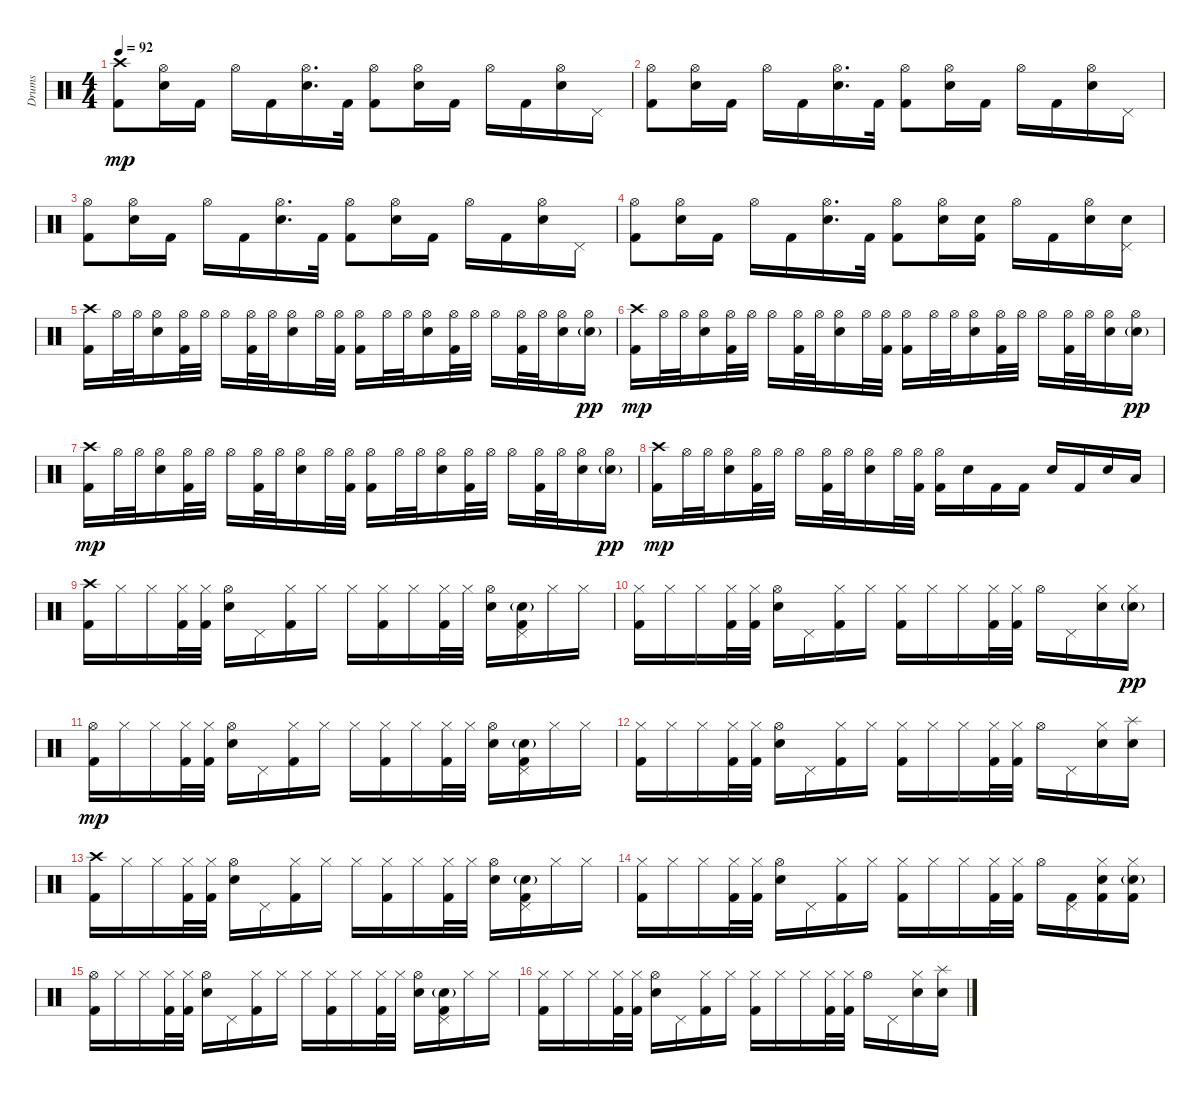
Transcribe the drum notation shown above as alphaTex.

\track ("Drums" "Drums") {instrument percussion}
\staff {score}
\articulation defaults
\ts (4 4)
\tempo 92
\clef neutral
\ks c
("Crash high (hit)" "Kick (hit) 2").8{dy mp} ("Hi-Hat (open)" "Electric Snare (hit)").16 "Kick (hit) 2".16 "Hi-Hat (open)".16 "Kick (hit) 2".16 ("Hi-Hat (open)" "Electric Snare (hit)").16{d} "Kick (hit) 2".32 ("Hi-Hat (open)" "Kick (hit) 2").8 ("Hi-Hat (open)" "Electric Snare (hit)").16 "Kick (hit) 2".16 "Hi-Hat (open)".16 "Kick (hit) 2".16 ("Hi-Hat (open)" "Electric Snare (hit)").16 "Pedal Hi-Hat (hit)".16 |
("Hi-Hat (open)" "Kick (hit) 2").8 ("Hi-Hat (open)" "Electric Snare (hit)").16 "Kick (hit) 2".16 "Hi-Hat (open)".16 "Kick (hit) 2".16 ("Hi-Hat (open)" "Electric Snare (hit)").16{d} "Kick (hit) 2".32 ("Hi-Hat (open)" "Kick (hit) 2").8 ("Hi-Hat (open)" "Electric Snare (hit)").16 "Kick (hit) 2".16 "Hi-Hat (open)".16 "Kick (hit) 2".16 ("Hi-Hat (open)" "Electric Snare (hit)").16 "Pedal Hi-Hat (hit)".16 |
("Hi-Hat (open)" "Kick (hit) 2").8 ("Hi-Hat (open)" "Electric Snare (hit)").16 "Kick (hit) 2".16 "Hi-Hat (open)".16 "Kick (hit) 2".16 ("Hi-Hat (open)" "Electric Snare (hit)").16{d} "Kick (hit) 2".32 ("Hi-Hat (open)" "Kick (hit) 2").8 ("Hi-Hat (open)" "Electric Snare (hit)").16 "Kick (hit) 2".16 "Hi-Hat (open)".16 "Kick (hit) 2".16 ("Hi-Hat (open)" "Electric Snare (hit)").16 "Pedal Hi-Hat (hit)".16 |
("Hi-Hat (open)" "Kick (hit) 2").8 ("Hi-Hat (open)" "Electric Snare (hit)").16 "Kick (hit) 2".16 "Hi-Hat (open)".16 "Kick (hit) 2".16 ("Hi-Hat (open)" "Electric Snare (hit)").16{d} "Kick (hit) 2".32 ("Hi-Hat (open)" "Kick (hit) 2").8 ("Hi-Hat (open)" "Electric Snare (hit)").16 ("Electric Snare (hit)" "Kick (hit) 2").16 "Hi-Hat (open)".16 "Kick (hit) 2".16 ("Hi-Hat (open)" "Electric Snare (hit)").16 ("Pedal Hi-Hat (hit)" "Electric Snare (hit)").16 |
("Crash high (hit)" "Kick (hit) 2").16 "Hi-Hat (open)".32 "Hi-Hat (open)".32 ("Hi-Hat (open)" "Electric Snare (hit)").16 ("Hi-Hat (open)" "Kick (hit) 2").32 "Hi-Hat (open)".32 "Hi-Hat (open)".16 ("Hi-Hat (open)" "Kick (hit) 2").32 "Hi-Hat (open)".32 ("Hi-Hat (open)" "Electric Snare (hit)").16 "Hi-Hat (open)".32 ("Hi-Hat (open)" "Kick (hit) 2").32 ("Hi-Hat (open)" "Kick (hit) 2").16 "Hi-Hat (open)".32 "Hi-Hat (open)".32 ("Hi-Hat (open)" "Electric Snare (hit)").16 ("Hi-Hat (open)" "Kick (hit) 2").32 "Hi-Hat (open)".32 "Hi-Hat (open)".16 ("Hi-Hat (open)" "Kick (hit) 2").32 "Hi-Hat (open)".32 ("Hi-Hat (open)" "Electric Snare (hit)").16 ("Hi-Hat (open)" "Electric Snare (hit)"{g}).16{dy pp} |
("Crash high (hit)" "Kick (hit) 2").16{dy mp} "Hi-Hat (open)".32 "Hi-Hat (open)".32 ("Hi-Hat (open)" "Electric Snare (hit)").16 ("Hi-Hat (open)" "Kick (hit) 2").32 "Hi-Hat (open)".32 "Hi-Hat (open)".16 ("Hi-Hat (open)" "Kick (hit) 2").32 "Hi-Hat (open)".32 ("Hi-Hat (open)" "Electric Snare (hit)").16 "Hi-Hat (open)".32 ("Hi-Hat (open)" "Kick (hit) 2").32 ("Hi-Hat (open)" "Kick (hit) 2").16 "Hi-Hat (open)".32 "Hi-Hat (open)".32 ("Hi-Hat (open)" "Electric Snare (hit)").16 ("Hi-Hat (open)" "Kick (hit) 2").32 "Hi-Hat (open)".32 "Hi-Hat (open)".16 ("Hi-Hat (open)" "Kick (hit) 2").32 "Hi-Hat (open)".32 ("Hi-Hat (open)" "Electric Snare (hit)").16 ("Hi-Hat (open)" "Electric Snare (hit)"{g}).16{dy pp} |
("Crash high (hit)" "Kick (hit) 2").16{dy mp} "Hi-Hat (open)".32 "Hi-Hat (open)".32 ("Hi-Hat (open)" "Electric Snare (hit)").16 ("Hi-Hat (open)" "Kick (hit) 2").32 "Hi-Hat (open)".32 "Hi-Hat (open)".16 ("Hi-Hat (open)" "Kick (hit) 2").32 "Hi-Hat (open)".32 ("Hi-Hat (open)" "Electric Snare (hit)").16 "Hi-Hat (open)".32 ("Hi-Hat (open)" "Kick (hit) 2").32 ("Hi-Hat (open)" "Kick (hit) 2").16 "Hi-Hat (open)".32 "Hi-Hat (open)".32 ("Hi-Hat (open)" "Electric Snare (hit)").16 ("Hi-Hat (open)" "Kick (hit) 2").32 "Hi-Hat (open)".32 "Hi-Hat (open)".16 ("Hi-Hat (open)" "Kick (hit) 2").32 "Hi-Hat (open)".32 ("Hi-Hat (open)" "Electric Snare (hit)").16 ("Hi-Hat (open)" "Electric Snare (hit)"{g}).16{dy pp} |
("Crash high (hit)" "Kick (hit) 2").16{dy mp} "Hi-Hat (open)".32 "Hi-Hat (open)".32 ("Hi-Hat (open)" "Electric Snare (hit)").16 ("Hi-Hat (open)" "Kick (hit) 2").32 "Hi-Hat (open)".32 "Hi-Hat (open)".16 ("Hi-Hat (open)" "Kick (hit) 2").32 "Hi-Hat (open)".32 ("Hi-Hat (open)" "Electric Snare (hit)").16 "Hi-Hat (open)".32 ("Hi-Hat (open)" "Kick (hit) 2").32 ("Hi-Hat (open)" "Kick (hit) 2").16 "Electric Snare (hit)".16 "Kick (hit) 2".16 "Kick (hit) 2".16 "Electric Snare (hit)".16 "Kick (hit) 2".16 "Electric Snare (hit)".16 "Low Floor Tom (hit)".16 |
("Crash high (hit)" "Kick (hit) 2").16 "Hi-Hat (closed)".16 "Hi-Hat (closed)".16 ("Hi-Hat (closed)" "Kick (hit) 2").32 ("Hi-Hat (closed)" "Kick (hit) 2").32 ("Hi-Hat (open)" "Electric Snare (hit)").16 "Pedal Hi-Hat (hit)".16 ("Hi-Hat (closed)" "Kick (hit) 2").16 "Hi-Hat (closed)".16 "Hi-Hat (closed)".16 ("Hi-Hat (closed)" "Kick (hit) 2").16 "Hi-Hat (closed)".16 ("Hi-Hat (closed)" "Kick (hit) 2").32 "Hi-Hat (closed)".32 ("Hi-Hat (open)" "Electric Snare (hit)").16 ("Pedal Hi-Hat (hit)" "Electric Snare (hit)"{g} "Kick (hit) 2").16 "Hi-Hat (closed)".16 "Hi-Hat (closed)".16 |
("Hi-Hat (closed)" "Kick (hit) 2").16 "Hi-Hat (closed)".16 "Hi-Hat (closed)".16 ("Hi-Hat (closed)" "Kick (hit) 2").32 ("Hi-Hat (closed)" "Kick (hit) 2").32 ("Hi-Hat (open)" "Electric Snare (hit)").16 "Pedal Hi-Hat (hit)".16 ("Hi-Hat (closed)" "Kick (hit) 2").16 "Hi-Hat (closed)".16 ("Hi-Hat (closed)" "Kick (hit) 2").16 "Hi-Hat (closed)".16 "Hi-Hat (closed)".16 ("Hi-Hat (closed)" "Kick (hit) 2").32 ("Hi-Hat (closed)" "Kick (hit) 2").32 "Hi-Hat (open)".16 "Pedal Hi-Hat (hit)".16 ("Hi-Hat (closed)" "Electric Snare (hit)").16 ("Hi-Hat (closed)" "Electric Snare (hit)"{g}).16{dy pp} |
("Hi-Hat (open)" "Kick (hit) 2").16{dy mp} "Hi-Hat (closed)".16 "Hi-Hat (closed)".16 ("Hi-Hat (closed)" "Kick (hit) 2").32 ("Hi-Hat (closed)" "Kick (hit) 2").32 ("Hi-Hat (open)" "Electric Snare (hit)").16 "Pedal Hi-Hat (hit)".16 ("Hi-Hat (closed)" "Kick (hit) 2").16 "Hi-Hat (closed)".16 "Hi-Hat (closed)".16 ("Hi-Hat (closed)" "Kick (hit) 2").16 "Hi-Hat (closed)".16 ("Hi-Hat (closed)" "Kick (hit) 2").32 "Hi-Hat (closed)".32 ("Hi-Hat (open)" "Electric Snare (hit)").16 ("Pedal Hi-Hat (hit)" "Electric Snare (hit)"{g} "Kick (hit) 2").16 "Hi-Hat (closed)".16 "Hi-Hat (closed)".16 |
("Hi-Hat (closed)" "Kick (hit) 2").16 "Hi-Hat (closed)".16 "Hi-Hat (closed)".16 ("Hi-Hat (closed)" "Kick (hit) 2").32 ("Hi-Hat (closed)" "Kick (hit) 2").32 ("Hi-Hat (open)" "Electric Snare (hit)").16 "Pedal Hi-Hat (hit)".16 ("Hi-Hat (closed)" "Kick (hit) 2").16 "Hi-Hat (closed)".16 ("Hi-Hat (closed)" "Kick (hit) 2").16 "Hi-Hat (closed)".16 "Hi-Hat (closed)".16 ("Hi-Hat (closed)" "Kick (hit) 2").32 ("Hi-Hat (closed)" "Kick (hit) 2").32 "Hi-Hat (open)".16 "Pedal Hi-Hat (hit)".16 ("Hi-Hat (closed)" "Electric Snare (hit)").16 ("Splash (hit)" "Electric Snare (hit)").16 |
("Crash high (hit)" "Kick (hit) 2").16 "Hi-Hat (closed)".16 "Hi-Hat (closed)".16 ("Hi-Hat (closed)" "Kick (hit) 2").32 ("Hi-Hat (closed)" "Kick (hit) 2").32 ("Hi-Hat (open)" "Electric Snare (hit)").16 "Pedal Hi-Hat (hit)".16 ("Hi-Hat (closed)" "Kick (hit) 2").16 "Hi-Hat (closed)".16 "Hi-Hat (closed)".16 ("Hi-Hat (closed)" "Kick (hit) 2").16 "Hi-Hat (closed)".16 ("Hi-Hat (closed)" "Kick (hit) 2").32 "Hi-Hat (closed)".32 ("Hi-Hat (open)" "Electric Snare (hit)").16 ("Pedal Hi-Hat (hit)" "Electric Snare (hit)"{g} "Kick (hit) 2").16 "Hi-Hat (closed)".16 "Hi-Hat (closed)".16 |
("Hi-Hat (closed)" "Kick (hit) 2").16 "Hi-Hat (closed)".16 "Hi-Hat (closed)".16 ("Hi-Hat (closed)" "Kick (hit) 2").32 ("Hi-Hat (closed)" "Kick (hit) 2").32 ("Hi-Hat (open)" "Electric Snare (hit)").16 "Pedal Hi-Hat (hit)".16 ("Hi-Hat (closed)" "Kick (hit) 2").16 "Hi-Hat (closed)".16 ("Hi-Hat (closed)" "Kick (hit) 2").16 "Hi-Hat (closed)".16 "Hi-Hat (closed)".16 ("Hi-Hat (closed)" "Kick (hit) 2").32 ("Hi-Hat (closed)" "Kick (hit) 2").32 "Hi-Hat (open)".16 ("Pedal Hi-Hat (hit)" "Kick (hit) 2").16 ("Hi-Hat (closed)" "Electric Snare (hit)" "Kick (hit) 2").16 ("Hi-Hat (closed)" "Electric Snare (hit)"{g} "Kick (hit) 2").16 |
("Hi-Hat (open)" "Kick (hit) 2").16 "Hi-Hat (closed)".16 "Hi-Hat (closed)".16 ("Hi-Hat (closed)" "Kick (hit) 2").32 ("Hi-Hat (closed)" "Kick (hit) 2").32 ("Hi-Hat (open)" "Electric Snare (hit)").16 "Pedal Hi-Hat (hit)".16 ("Hi-Hat (closed)" "Kick (hit) 2").16 "Hi-Hat (closed)".16 "Hi-Hat (closed)".16 ("Hi-Hat (closed)" "Kick (hit) 2").16 "Hi-Hat (closed)".16 ("Hi-Hat (closed)" "Kick (hit) 2").32 "Hi-Hat (closed)".32 ("Hi-Hat (open)" "Electric Snare (hit)").16 ("Pedal Hi-Hat (hit)" "Electric Snare (hit)"{g} "Kick (hit) 2").16 "Hi-Hat (closed)".16 "Hi-Hat (closed)".16 |
("Hi-Hat (closed)" "Kick (hit) 2").16 "Hi-Hat (closed)".16 "Hi-Hat (closed)".16 ("Hi-Hat (closed)" "Kick (hit) 2").32 ("Hi-Hat (closed)" "Kick (hit) 2").32 ("Hi-Hat (open)" "Electric Snare (hit)").16 "Pedal Hi-Hat (hit)".16 ("Hi-Hat (closed)" "Kick (hit) 2").16 "Hi-Hat (closed)".16 ("Hi-Hat (closed)" "Kick (hit) 2").16 "Hi-Hat (closed)".16 "Hi-Hat (closed)".16 ("Hi-Hat (closed)" "Kick (hit) 2").32 ("Hi-Hat (closed)" "Kick (hit) 2").32 "Hi-Hat (open)".16 "Pedal Hi-Hat (hit)".16 ("Hi-Hat (closed)" "Electric Snare (hit)").16 ("Splash (hit)" "Electric Snare (hit)").16
